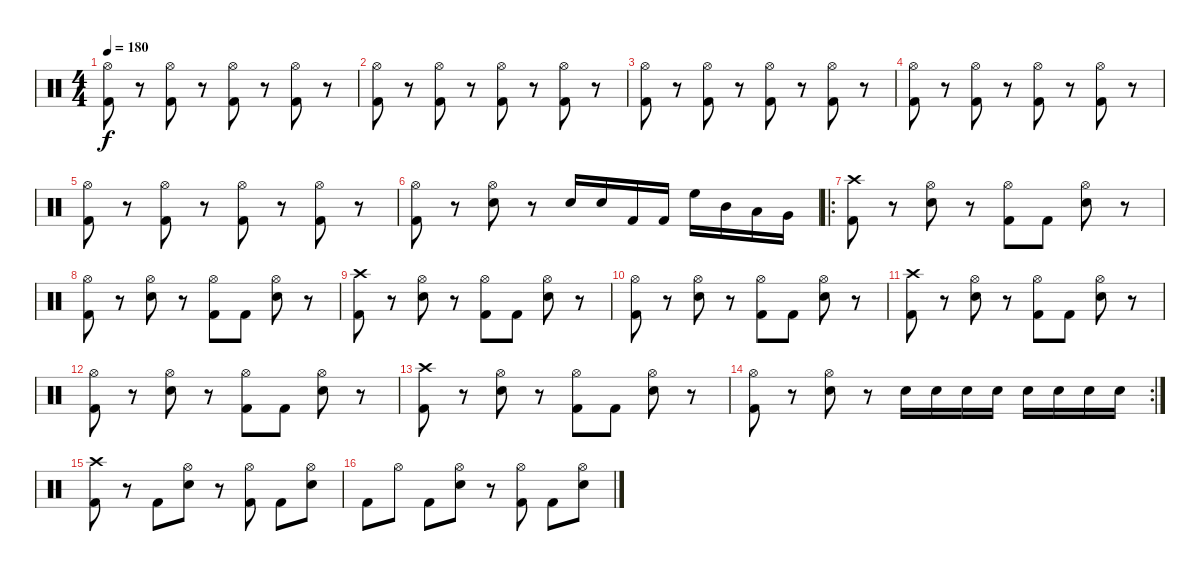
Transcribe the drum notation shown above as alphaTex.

\track "" {instrument percussion}
\staff {score}
\articulation defaults
\ts (4 4)
\tempo 180
\clef neutral
\ks c
("Hi-Hat (open)" "Kick (hit) 2").8{dy f} r.8 ("Hi-Hat (open)" "Kick (hit) 2").8 r.8 ("Hi-Hat (open)" "Kick (hit) 2").8 r.8 ("Hi-Hat (open)" "Kick (hit) 2").8 r.8 |
("Hi-Hat (open)" "Kick (hit) 2").8 r.8 ("Hi-Hat (open)" "Kick (hit) 2").8 r.8 ("Hi-Hat (open)" "Kick (hit) 2").8 r.8 ("Hi-Hat (open)" "Kick (hit) 2").8 r.8 |
("Hi-Hat (open)" "Kick (hit) 2").8 r.8 ("Hi-Hat (open)" "Kick (hit) 2").8 r.8 ("Hi-Hat (open)" "Kick (hit) 2").8 r.8 ("Hi-Hat (open)" "Kick (hit) 2").8 r.8 |
("Hi-Hat (open)" "Kick (hit) 2").8 r.8 ("Hi-Hat (open)" "Kick (hit) 2").8 r.8 ("Hi-Hat (open)" "Kick (hit) 2").8 r.8 ("Hi-Hat (open)" "Kick (hit) 2").8 r.8 |
("Hi-Hat (open)" "Kick (hit) 2").8 r.8 ("Hi-Hat (open)" "Kick (hit) 2").8 r.8 ("Hi-Hat (open)" "Kick (hit) 2").8 r.8 ("Hi-Hat (open)" "Kick (hit) 2").8 r.8 |
("Hi-Hat (open)" "Kick (hit) 2").8 r.8 ("Hi-Hat (open)" "Electric Snare (hit)").8 r.8 "Electric Snare (hit)".16 "Electric Snare (hit)".16 "Kick (hit) 2".16 "Kick (hit) 2".16 "High Floor Tom (hit)".16 "Mid Tom (hit)".16 "Low Tom (hit)".16 "Very Low Tom (hit)".16 |
\ro
("Crash high (hit)" "Kick (hit) 2").8 r.8 ("Hi-Hat (open)" "Electric Snare (hit)").8 r.8 ("Hi-Hat (open)" "Kick (hit) 2").8 "Kick (hit) 2".8 ("Hi-Hat (open)" "Electric Snare (hit)").8 r.8 |
("Hi-Hat (open)" "Kick (hit) 2").8 r.8 ("Hi-Hat (open)" "Electric Snare (hit)").8 r.8 ("Hi-Hat (open)" "Kick (hit) 2").8 "Kick (hit) 2".8 ("Hi-Hat (open)" "Electric Snare (hit)").8 r.8 |
("Crash high (hit)" "Kick (hit) 2").8 r.8 ("Hi-Hat (open)" "Electric Snare (hit)").8 r.8 ("Hi-Hat (open)" "Kick (hit) 2").8 "Kick (hit) 2".8 ("Hi-Hat (open)" "Electric Snare (hit)").8 r.8 |
("Hi-Hat (open)" "Kick (hit) 2").8 r.8 ("Hi-Hat (open)" "Electric Snare (hit)").8 r.8 ("Hi-Hat (open)" "Kick (hit) 2").8 "Kick (hit) 2".8 ("Hi-Hat (open)" "Electric Snare (hit)").8 r.8 |
("Crash high (hit)" "Kick (hit) 2").8 r.8 ("Hi-Hat (open)" "Electric Snare (hit)").8 r.8 ("Hi-Hat (open)" "Kick (hit) 2").8 "Kick (hit) 2".8 ("Hi-Hat (open)" "Electric Snare (hit)").8 r.8 |
("Hi-Hat (open)" "Kick (hit) 2").8 r.8 ("Hi-Hat (open)" "Electric Snare (hit)").8 r.8 ("Hi-Hat (open)" "Kick (hit) 2").8 "Kick (hit) 2".8 ("Hi-Hat (open)" "Electric Snare (hit)").8 r.8 |
("Crash high (hit)" "Kick (hit) 2").8 r.8 ("Hi-Hat (open)" "Electric Snare (hit)").8 r.8 ("Hi-Hat (open)" "Kick (hit) 2").8 "Kick (hit) 2".8 ("Hi-Hat (open)" "Electric Snare (hit)").8 r.8 |
\rc 2
("Hi-Hat (open)" "Kick (hit) 2").8 r.8 ("Hi-Hat (open)" "Electric Snare (hit)").8 r.8 "Electric Snare (hit)".16 "Electric Snare (hit)".16 "Electric Snare (hit)".16 "Electric Snare (hit)".16 "Electric Snare (hit)".16 "Electric Snare (hit)".16 "Electric Snare (hit)".16 "Electric Snare (hit)".16 |
("Crash high (hit)" "Kick (hit) 2").8 r.8 "Kick (hit) 2".8 ("Hi-Hat (open)" "Electric Snare (hit)").8 r.8 ("Hi-Hat (open)" "Kick (hit) 2").8 "Kick (hit) 2".8 ("Hi-Hat (open)" "Electric Snare (hit)").8 |
"Kick (hit) 2".8 "Hi-Hat (open)".8 "Kick (hit) 2".8 ("Hi-Hat (open)" "Electric Snare (hit)").8 r.8 ("Hi-Hat (open)" "Kick (hit) 2").8 "Kick (hit) 2".8 ("Hi-Hat (open)" "Electric Snare (hit)").8
